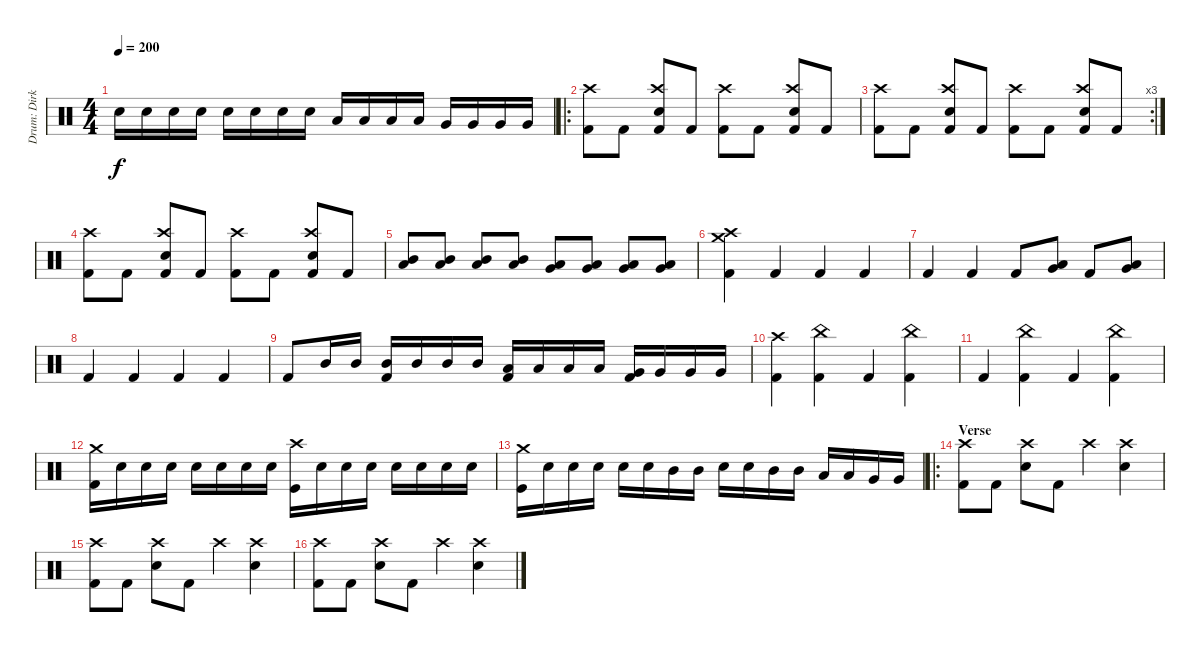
\track ("Drum: Dirk" "Drum: Dirk") {instrument percussion}
\staff {score}
\articulation defaults
\ts (4 4)
\tempo 200
\clef neutral
\ks c "Electric Snare (hit)".16{dy f} "Electric Snare (hit)".16 "Electric Snare (hit)".16 "Electric Snare (hit)".16 "Electric Snare (hit)".16 "Electric Snare (hit)".16 "Electric Snare (hit)".16 "Electric Snare (hit)".16 "Low Tom (hit)".16 "Low Tom (hit)".16 "Low Tom (hit)".16 "Low Tom (hit)".16 "Very Low Tom (hit)".16 "Very Low Tom (hit)".16 "Very Low Tom (hit)".16 "Very Low Tom (hit)".16
|
\ro
("Crash high (hit)" "Kick (hit) 2").8 "Kick (hit) 2".8 ("Crash high (hit)" "Electric Snare (hit)" "Kick (hit) 2").8 "Kick (hit) 2".8 ("Crash high (hit)" "Kick (hit) 2").8 "Kick (hit) 2".8 ("Crash high (hit)" "Electric Snare (hit)" "Kick (hit) 2").8 "Kick (hit) 2".8 |
\rc 3
("Crash high (hit)" "Kick (hit) 2").8 "Kick (hit) 2".8 ("Crash high (hit)" "Electric Snare (hit)" "Kick (hit) 2").8 "Kick (hit) 2".8 ("Crash high (hit)" "Kick (hit) 2").8 "Kick (hit) 2".8 ("Crash high (hit)" "Electric Snare (hit)" "Kick (hit) 2").8 "Kick (hit) 2".8 |
("Crash high (hit)" "Kick (hit) 2").8 "Kick (hit) 2".8 ("Crash high (hit)" "Electric Snare (hit)" "Kick (hit) 2").8 "Kick (hit) 2".8 ("Crash high (hit)" "Kick (hit) 2").8 "Kick (hit) 2".8 ("Crash high (hit)" "Electric Snare (hit)" "Kick (hit) 2").8 "Kick (hit) 2".8 |
("Mid Tom (hit)" "Low Tom (hit)").8 ("Mid Tom (hit)" "Low Tom (hit)").8 ("Mid Tom (hit)" "Low Tom (hit)").8 ("Mid Tom (hit)" "Low Tom (hit)").8 ("Low Tom (hit)" "Very Low Tom (hit)").8 ("Low Tom (hit)" "Very Low Tom (hit)").8 ("Very Low Tom (hit)" "Low Floor Tom (hit)").8 ("Very Low Tom (hit)" "Low Floor Tom (hit)").8 |
("Crash high (hit)" "Crash medium (hit)" "Kick (hit) 2").4 "Kick (hit) 2".4 "Kick (hit) 2".4 "Kick (hit) 2".4 |
"Kick (hit) 2".4 "Kick (hit) 2".4 "Kick (hit) 2".8 ("Low Tom (hit)" "Very Low Tom (hit)").8 "Kick (hit) 2".8 ("Low Tom (hit)" "Very Low Tom (hit)").8 |
"Kick (hit) 2".4 "Kick (hit) 2".4 "Kick (hit) 2".4 "Kick (hit) 2".4 |
"Kick (hit) 2".8 "Mid Tom (hit)".16 "Mid Tom (hit)".16 ("Mid Tom (hit)" "Kick (hit) 2").16 "Mid Tom (hit)".16 "Mid Tom (hit)".16 "Mid Tom (hit)".16 ("Low Tom (hit)" "Kick (hit) 2").16 "Low Tom (hit)".16 "Low Tom (hit)".16 "Low Tom (hit)".16 ("Very Low Tom (hit)" "Kick (hit) 2").16 "Very Low Tom (hit)".16 "Very Low Tom (hit)".16 "Very Low Tom (hit)".16 |
("Crash high (hit)" "Kick (hit) 2").4 ("China (hit)" "Kick (hit) 2").4 "Kick (hit) 2".4 ("China (hit)" "Kick (hit) 2").4 |
"Kick (hit) 2".4 ("China (hit)" "Kick (hit) 2").4 "Kick (hit) 2".4 ("China (hit)" "Kick (hit) 2").4 |
("Crash medium (hit)" "Kick (hit) 2").16 "Electric Snare (hit)".16 "Electric Snare (hit)".16 "Electric Snare (hit)".16 "Electric Snare (hit)".16 "Electric Snare (hit)".16 "Electric Snare (hit)".16 "Electric Snare (hit)".16 ("Crash high (hit)" "Kick (hit)").16 "Electric Snare (hit)".16 "Electric Snare (hit)".16 "Electric Snare (hit)".16 "Electric Snare (hit)".16 "Electric Snare (hit)".16 "Electric Snare (hit)".16 "Electric Snare (hit)".16 |
("Crash medium (hit)" "Kick (hit)").16 "Electric Snare (hit)".16 "Electric Snare (hit)".16 "Electric Snare (hit)".16 "Electric Snare (hit)".16 "Electric Snare (hit)".16 "Mid Tom (hit)".16 "Mid Tom (hit)".16 "Electric Snare (hit)".16 "Electric Snare (hit)".16 "Mid Tom (hit)".16 "Mid Tom (hit)".16 "Low Tom (hit)".16 "Low Tom (hit)".16 "Very Low Tom (hit)".16 "Very Low Tom (hit)".16 |
\ro
\section ("" "Verse")
("Crash high (hit)" "Kick (hit) 2").8 "Kick (hit) 2".8 ("Crash high (hit)" "Electric Snare (hit)").8 "Kick (hit) 2".8 "Crash high (hit)".4 ("Crash high (hit)" "Electric Snare (hit)").4 |
("Crash high (hit)" "Kick (hit) 2").8 "Kick (hit) 2".8 ("Crash high (hit)" "Electric Snare (hit)").8 "Kick (hit) 2".8 "Crash high (hit)".4 ("Crash high (hit)" "Electric Snare (hit)").4 |
("Crash high (hit)" "Kick (hit) 2").8 "Kick (hit) 2".8 ("Crash high (hit)" "Electric Snare (hit)").8 "Kick (hit) 2".8 "Crash high (hit)".4 ("Crash high (hit)" "Electric Snare (hit)").4
